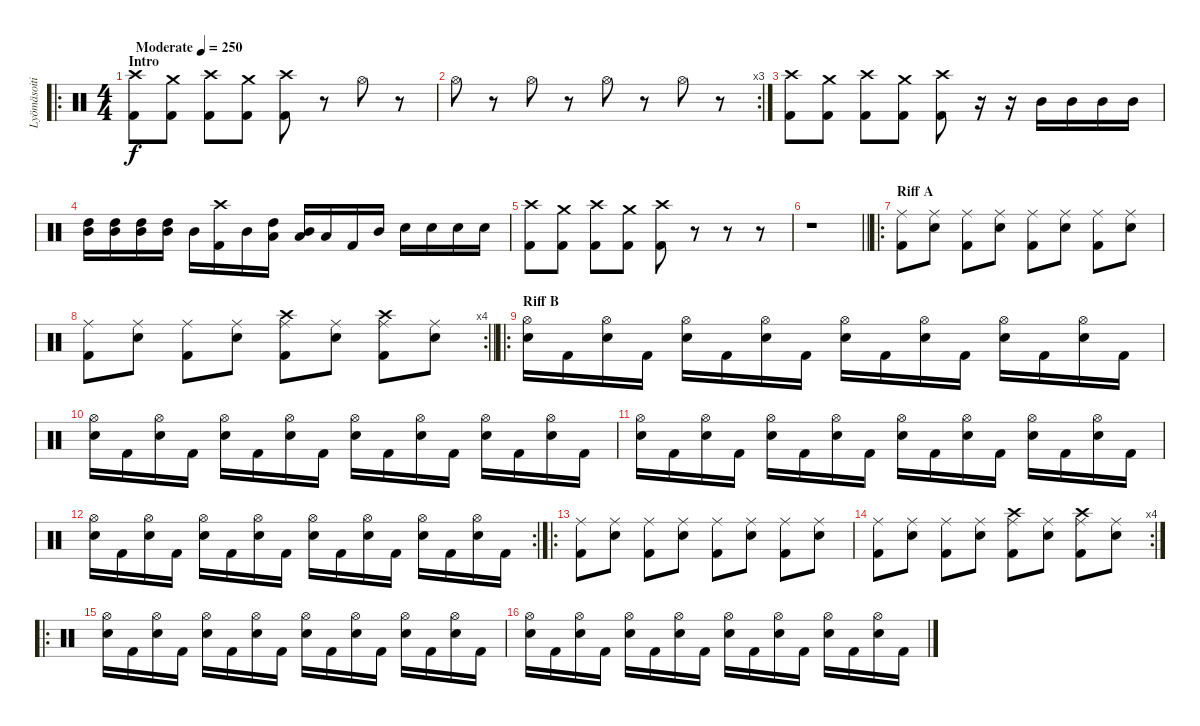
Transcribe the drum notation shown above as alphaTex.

\track ("Lyömäsoitin" "Lyömäsoiti") {instrument percussion}
\staff {score}
\articulation defaults
\ro
\ts (4 4)
\section ("" "Intro")
\tempo (250 "Moderate")
\clef neutral
\ks c
("Crash high (hit)" "Kick (hit) 2").8{dy f} ("Crash medium (hit)" "Kick (hit) 2").8 ("Crash high (hit)" "Kick (hit) 2").8 ("Crash medium (hit)" "Kick (hit) 2").8 ("Crash high (hit)" "Kick (hit) 2").8 r.8 "Hi-Hat (open)".8 r.8 |
\rc 3 "Hi-Hat (open)".8
r.8 "Hi-Hat (open)".8 r.8 "Hi-Hat (open)".8 r.8 "Hi-Hat (open)".8 r.8 |
("Crash high (hit)" "Kick (hit) 2").8 ("Crash medium (hit)" "Kick (hit) 2").8 ("Crash high (hit)" "Kick (hit) 2").8 ("Crash medium (hit)" "Kick (hit) 2").8 ("Crash high (hit)" "Kick (hit) 2").8 r.16 r.16 "Mid Tom (hit)".16 "Mid Tom (hit)".16 "Mid Tom (hit)".16 "Mid Tom (hit)".16 |
("High Tom (hit)" "Mid Tom (hit)").16 ("High Tom (hit)" "Mid Tom (hit)").16 ("High Tom (hit)" "Mid Tom (hit)").16 ("High Tom (hit)" "Mid Tom (hit)").16 "Mid Tom (hit)".16 ("Crash high (hit)" "Kick (hit) 2").16 "Mid Tom (hit)".16 ("Low Tom (hit)" "High Tom (hit)").16 ("Low Tom (hit)" "Mid Tom (hit)").16 "Low Tom (hit)".16 "Kick (hit) 2".16 "Mid Tom (hit)".16 "Electric Snare (hit)".16 "Electric Snare (hit)".16 "Electric Snare (hit)".16 "Electric Snare (hit)".16 |
("Crash high (hit)" "Kick (hit) 2").8 ("Crash medium (hit)" "Kick (hit) 2").8 ("Crash high (hit)" "Kick (hit) 2").8 ("Crash medium (hit)" "Kick (hit) 2").8 ("Crash high (hit)" "Kick (hit) 2").8 r.8 r.8 r.8 |
\barLineRight lightlight
r.1 |
\ro
\section ("" "Riff A")
("Ride (middle)" "Kick (hit) 2").8 ("Ride (middle)" "Electric Snare (hit)").8 ("Ride (middle)" "Kick (hit) 2").8 ("Ride (middle)" "Electric Snare (hit)").8 ("Ride (middle)" "Kick (hit) 2").8 ("Ride (middle)" "Electric Snare (hit)").8 ("Ride (middle)" "Kick (hit) 2").8 ("Ride (middle)" "Electric Snare (hit)").8 |
\rc 4
\barLineRight lightlight
("Ride (middle)" "Kick (hit) 2").8 ("Ride (middle)" "Electric Snare (hit)").8 ("Ride (middle)" "Kick (hit) 2").8 ("Ride (middle)" "Electric Snare (hit)").8 ("Crash high (hit)" "Ride (middle)" "Kick (hit) 2").8 ("Ride (middle)" "Electric Snare (hit)").8 ("Crash high (hit)" "Ride (middle)" "Kick (hit) 2").8 ("Ride (middle)" "Electric Snare (hit)").8 |
\ro
\section ("" "Riff B")
("Hi-Hat (open)" "Electric Snare (hit)").16 "Kick (hit) 2".16 ("Hi-Hat (open)" "Electric Snare (hit)").16 "Kick (hit) 2".16 ("Hi-Hat (open)" "Electric Snare (hit)").16 "Kick (hit) 2".16 ("Hi-Hat (open)" "Electric Snare (hit)").16 "Kick (hit) 2".16 ("Hi-Hat (open)" "Electric Snare (hit)").16 "Kick (hit) 2".16 ("Hi-Hat (open)" "Electric Snare (hit)").16 "Kick (hit) 2".16 ("Hi-Hat (open)" "Electric Snare (hit)").16 "Kick (hit) 2".16 ("Hi-Hat (open)" "Electric Snare (hit)").16 "Kick (hit) 2".16 |
("Hi-Hat (open)" "Electric Snare (hit)").16 "Kick (hit) 2".16 ("Hi-Hat (open)" "Electric Snare (hit)").16 "Kick (hit) 2".16 ("Hi-Hat (open)" "Electric Snare (hit)").16 "Kick (hit) 2".16 ("Hi-Hat (open)" "Electric Snare (hit)").16 "Kick (hit) 2".16 ("Hi-Hat (open)" "Electric Snare (hit)").16 "Kick (hit) 2".16 ("Hi-Hat (open)" "Electric Snare (hit)").16 "Kick (hit) 2".16 ("Hi-Hat (open)" "Electric Snare (hit)").16 "Kick (hit) 2".16 ("Hi-Hat (open)" "Electric Snare (hit)").16 "Kick (hit) 2".16 |
("Hi-Hat (open)" "Electric Snare (hit)").16 "Kick (hit) 2".16 ("Hi-Hat (open)" "Electric Snare (hit)").16 "Kick (hit) 2".16 ("Hi-Hat (open)" "Electric Snare (hit)").16 "Kick (hit) 2".16 ("Hi-Hat (open)" "Electric Snare (hit)").16 "Kick (hit) 2".16 ("Hi-Hat (open)" "Electric Snare (hit)").16 "Kick (hit) 2".16 ("Hi-Hat (open)" "Electric Snare (hit)").16 "Kick (hit) 2".16 ("Hi-Hat (open)" "Electric Snare (hit)").16 "Kick (hit) 2".16 ("Hi-Hat (open)" "Electric Snare (hit)").16 "Kick (hit) 2".16 |
\rc 2
("Hi-Hat (open)" "Electric Snare (hit)").16 "Kick (hit) 2".16 ("Hi-Hat (open)" "Electric Snare (hit)").16 "Kick (hit) 2".16 ("Hi-Hat (open)" "Electric Snare (hit)").16 "Kick (hit) 2".16 ("Hi-Hat (open)" "Electric Snare (hit)").16 "Kick (hit) 2".16 ("Hi-Hat (open)" "Electric Snare (hit)").16 "Kick (hit) 2".16 ("Hi-Hat (open)" "Electric Snare (hit)").16 "Kick (hit) 2".16 ("Hi-Hat (open)" "Electric Snare (hit)").16 "Kick (hit) 2".16 ("Hi-Hat (open)" "Electric Snare (hit)").16 "Kick (hit) 2".16 |
\ro
("Ride (middle)" "Kick (hit) 2").8 ("Ride (middle)" "Electric Snare (hit)").8 ("Ride (middle)" "Kick (hit) 2").8 ("Ride (middle)" "Electric Snare (hit)").8 ("Ride (middle)" "Kick (hit) 2").8 ("Ride (middle)" "Electric Snare (hit)").8 ("Ride (middle)" "Kick (hit) 2").8 ("Ride (middle)" "Electric Snare (hit)").8 |
\rc 4
("Ride (middle)" "Kick (hit) 2").8 ("Ride (middle)" "Electric Snare (hit)").8 ("Ride (middle)" "Kick (hit) 2").8 ("Ride (middle)" "Electric Snare (hit)").8 ("Crash high (hit)" "Ride (middle)" "Kick (hit) 2").8 ("Ride (middle)" "Electric Snare (hit)").8 ("Crash high (hit)" "Ride (middle)" "Kick (hit) 2").8 ("Ride (middle)" "Electric Snare (hit)").8 |
\ro
("Hi-Hat (open)" "Electric Snare (hit)").16 "Kick (hit) 2".16 ("Hi-Hat (open)" "Electric Snare (hit)").16 "Kick (hit) 2".16 ("Hi-Hat (open)" "Electric Snare (hit)").16 "Kick (hit) 2".16 ("Hi-Hat (open)" "Electric Snare (hit)").16 "Kick (hit) 2".16 ("Hi-Hat (open)" "Electric Snare (hit)").16 "Kick (hit) 2".16 ("Hi-Hat (open)" "Electric Snare (hit)").16 "Kick (hit) 2".16 ("Hi-Hat (open)" "Electric Snare (hit)").16 "Kick (hit) 2".16 ("Hi-Hat (open)" "Electric Snare (hit)").16 "Kick (hit) 2".16 |
("Hi-Hat (open)" "Electric Snare (hit)").16 "Kick (hit) 2".16 ("Hi-Hat (open)" "Electric Snare (hit)").16 "Kick (hit) 2".16 ("Hi-Hat (open)" "Electric Snare (hit)").16 "Kick (hit) 2".16 ("Hi-Hat (open)" "Electric Snare (hit)").16 "Kick (hit) 2".16 ("Hi-Hat (open)" "Electric Snare (hit)").16 "Kick (hit) 2".16 ("Hi-Hat (open)" "Electric Snare (hit)").16 "Kick (hit) 2".16 ("Hi-Hat (open)" "Electric Snare (hit)").16 "Kick (hit) 2".16 ("Hi-Hat (open)" "Electric Snare (hit)").16 "Kick (hit) 2".16
